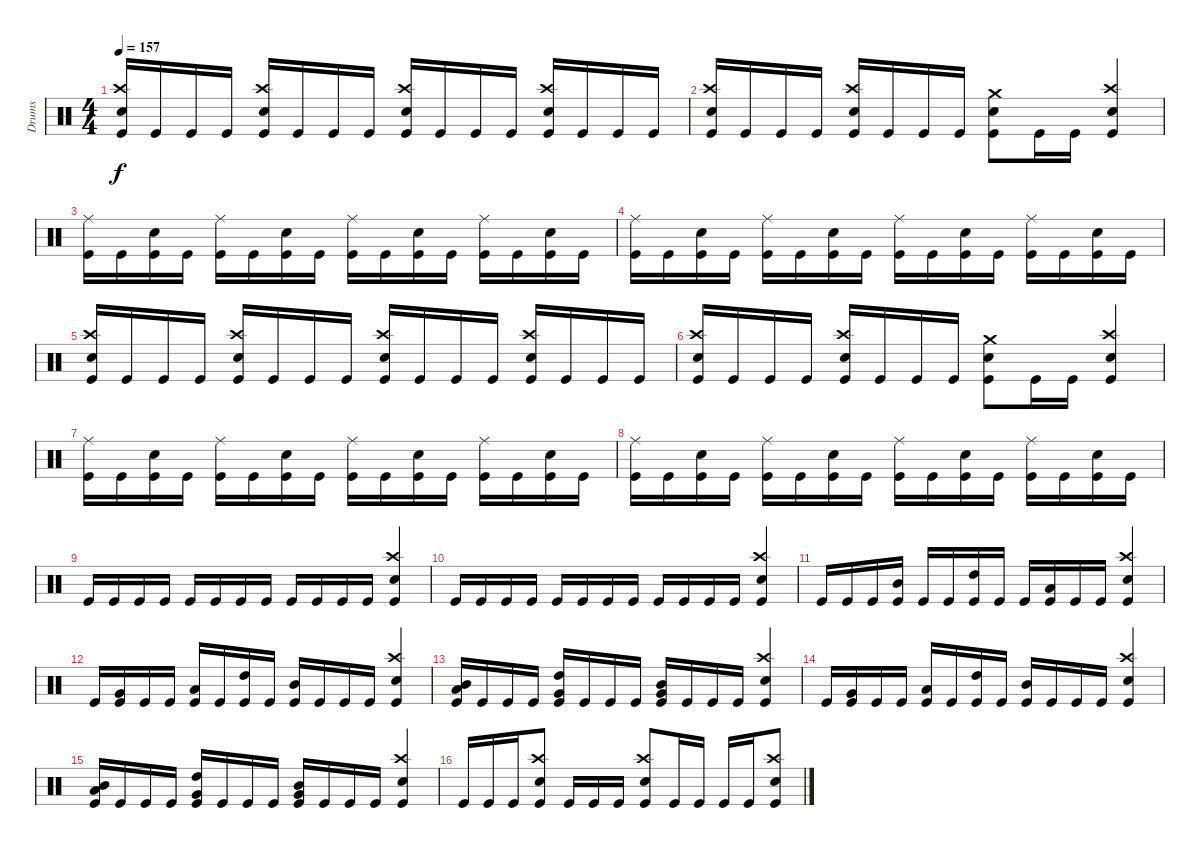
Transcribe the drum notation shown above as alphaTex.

\track ("Drums" "Drums") {instrument percussion}
\staff {score}
\articulation defaults
\ts (4 4)
\tempo 157
\clef neutral
\ks c
("Snare (hit) 2" "Crash high (hit)" "Kick (hit)").16{dy f} "Kick (hit)".16 "Kick (hit)".16 "Kick (hit)".16 ("Snare (hit) 2" "Crash high (hit)" "Kick (hit)").16 "Kick (hit)".16 "Kick (hit)".16 "Kick (hit)".16 ("Snare (hit) 2" "Crash high (hit)" "Kick (hit)").16 "Kick (hit)".16 "Kick (hit)".16 "Kick (hit)".16 ("Snare (hit) 2" "Crash high (hit)" "Kick (hit)").16 "Kick (hit)".16 "Kick (hit)".16 "Kick (hit)".16 |
("Snare (hit) 2" "Crash high (hit)" "Kick (hit)").16 "Kick (hit)".16 "Kick (hit)".16 "Kick (hit)".16 ("Snare (hit) 2" "Crash high (hit)" "Kick (hit)").16 "Kick (hit)".16 "Kick (hit)".16 "Kick (hit)".16 ("Snare (hit) 2" "Crash medium (hit)" "Kick (hit)").8 "Kick (hit)".16 "Kick (hit)".16 ("Snare (hit) 2" "Crash high (hit)" "Kick (hit)").4 |
("Ride (middle)" "Kick (hit)").16 "Kick (hit)".16 ("Snare (hit) 2" "Kick (hit)").16 "Kick (hit)".16 ("Ride (middle)" "Kick (hit)").16 "Kick (hit)".16 ("Snare (hit) 2" "Kick (hit)").16 "Kick (hit)".16 ("Ride (middle)" "Kick (hit)").16 "Kick (hit)".16 ("Snare (hit) 2" "Kick (hit)").16 "Kick (hit)".16 ("Ride (middle)" "Kick (hit)").16 "Kick (hit)".16 ("Snare (hit) 2" "Kick (hit)").16 "Kick (hit)".16 |
("Ride (middle)" "Kick (hit)").16 "Kick (hit)".16 ("Snare (hit) 2" "Kick (hit)").16 "Kick (hit)".16 ("Ride (middle)" "Kick (hit)").16 "Kick (hit)".16 ("Snare (hit) 2" "Kick (hit)").16 "Kick (hit)".16 ("Ride (middle)" "Kick (hit)").16 "Kick (hit)".16 ("Snare (hit) 2" "Kick (hit)").16 "Kick (hit)".16 ("Ride (middle)" "Kick (hit)").16 "Kick (hit)".16 ("Snare (hit) 2" "Kick (hit)").16 "Kick (hit)".16 |
("Snare (hit) 2" "Crash high (hit)" "Kick (hit)").16 "Kick (hit)".16 "Kick (hit)".16 "Kick (hit)".16 ("Snare (hit) 2" "Crash high (hit)" "Kick (hit)").16 "Kick (hit)".16 "Kick (hit)".16 "Kick (hit)".16 ("Snare (hit) 2" "Crash high (hit)" "Kick (hit)").16 "Kick (hit)".16 "Kick (hit)".16 "Kick (hit)".16 ("Snare (hit) 2" "Crash high (hit)" "Kick (hit)").16 "Kick (hit)".16 "Kick (hit)".16 "Kick (hit)".16 |
("Snare (hit) 2" "Crash high (hit)" "Kick (hit)").16 "Kick (hit)".16 "Kick (hit)".16 "Kick (hit)".16 ("Snare (hit) 2" "Crash high (hit)" "Kick (hit)").16 "Kick (hit)".16 "Kick (hit)".16 "Kick (hit)".16 ("Snare (hit) 2" "Crash medium (hit)" "Kick (hit)").8 "Kick (hit)".16 "Kick (hit)".16 ("Snare (hit) 2" "Crash high (hit)" "Kick (hit)").4 |
("Ride (middle)" "Kick (hit)").16 "Kick (hit)".16 ("Snare (hit) 2" "Kick (hit)").16 "Kick (hit)".16 ("Ride (middle)" "Kick (hit)").16 "Kick (hit)".16 ("Snare (hit) 2" "Kick (hit)").16 "Kick (hit)".16 ("Ride (middle)" "Kick (hit)").16 "Kick (hit)".16 ("Snare (hit) 2" "Kick (hit)").16 "Kick (hit)".16 ("Ride (middle)" "Kick (hit)").16 "Kick (hit)".16 ("Snare (hit) 2" "Kick (hit)").16 "Kick (hit)".16 |
("Ride (middle)" "Kick (hit)").16 "Kick (hit)".16 ("Snare (hit) 2" "Kick (hit)").16 "Kick (hit)".16 ("Ride (middle)" "Kick (hit)").16 "Kick (hit)".16 ("Snare (hit) 2" "Kick (hit)").16 "Kick (hit)".16 ("Ride (middle)" "Kick (hit)").16 "Kick (hit)".16 ("Snare (hit) 2" "Kick (hit)").16 "Kick (hit)".16 ("Ride (middle)" "Kick (hit)").16 "Kick (hit)".16 ("Snare (hit) 2" "Kick (hit)").16 "Kick (hit)".16 |
"Kick (hit)".16 "Kick (hit)".16 "Kick (hit)".16 "Kick (hit)".16 "Kick (hit)".16 "Kick (hit)".16 "Kick (hit)".16 "Kick (hit)".16 "Kick (hit)".16 "Kick (hit)".16 "Kick (hit)".16 "Kick (hit)".16 ("Snare (hit) 2" "Crash high (hit)" "Kick (hit)").4 |
"Kick (hit)".16 "Kick (hit)".16 "Kick (hit)".16 "Kick (hit)".16 "Kick (hit)".16 "Kick (hit)".16 "Kick (hit)".16 "Kick (hit)".16 "Kick (hit)".16 "Kick (hit)".16 "Kick (hit)".16 "Kick (hit)".16 ("Snare (hit) 2" "Crash high (hit)" "Kick (hit)").4 |
"Kick (hit)".16 "Kick (hit)".16 "Kick (hit)".16 ("Mid Tom (hit)" "Kick (hit)").16 "Kick (hit)".16 "Kick (hit)".16 ("High Tom (hit)" "Kick (hit)").16 "Kick (hit)".16 "Kick (hit)".16 ("Low Tom (hit)" "Kick (hit)").16 "Kick (hit)".16 "Kick (hit)".16 ("Snare (hit) 2" "Crash high (hit)" "Kick (hit)").4 |
"Kick (hit)".16 ("Very Low Tom (hit)" "Kick (hit)").16 "Kick (hit)".16 "Kick (hit)".16 ("Low Tom (hit)" "Kick (hit)").16 "Kick (hit)".16 ("High Tom (hit)" "Kick (hit)").16 "Kick (hit)".16 ("Mid Tom (hit)" "Kick (hit)").16 "Kick (hit)".16 "Kick (hit)".16 "Kick (hit)".16 ("Snare (hit) 2" "Crash high (hit)" "Kick (hit)").4 |
("Mid Tom (hit)" "Low Tom (hit)" "Kick (hit)").16 "Kick (hit)".16 "Kick (hit)".16 "Kick (hit)".16 ("High Tom (hit)" "Very Low Tom (hit)" "Kick (hit)").16 "Kick (hit)".16 "Kick (hit)".16 "Kick (hit)".16 ("Mid Tom (hit)" "Very Low Tom (hit)" "Kick (hit)").16 "Kick (hit)".16 "Kick (hit)".16 "Kick (hit)".16 ("Snare (hit) 2" "Crash high (hit)" "Kick (hit)").4 |
"Kick (hit)".16 ("Very Low Tom (hit)" "Kick (hit)").16 "Kick (hit)".16 "Kick (hit)".16 ("Low Tom (hit)" "Kick (hit)").16 "Kick (hit)".16 ("High Tom (hit)" "Kick (hit)").16 "Kick (hit)".16 ("Mid Tom (hit)" "Kick (hit)").16 "Kick (hit)".16 "Kick (hit)".16 "Kick (hit)".16 ("Snare (hit) 2" "Crash high (hit)" "Kick (hit)").4 |
("Mid Tom (hit)" "Low Tom (hit)" "Kick (hit)").16 "Kick (hit)".16 "Kick (hit)".16 "Kick (hit)".16 ("High Tom (hit)" "Very Low Tom (hit)" "Kick (hit)").16 "Kick (hit)".16 "Kick (hit)".16 "Kick (hit)".16 ("Mid Tom (hit)" "Very Low Tom (hit)" "Kick (hit)").16 "Kick (hit)".16 "Kick (hit)".16 "Kick (hit)".16 ("Snare (hit) 2" "Crash high (hit)" "Kick (hit)").4 |
"Kick (hit)".16 "Kick (hit)".16 "Kick (hit)".16 ("Snare (hit) 2" "Crash high (hit)" "Kick (hit)").8 "Kick (hit)".16 "Kick (hit)".16 "Kick (hit)".16 ("Snare (hit) 2" "Crash high (hit)" "Kick (hit)").8 "Kick (hit)".16 "Kick (hit)".16 "Kick (hit)".16 "Kick (hit)".16 ("Snare (hit) 2" "Crash high (hit)" "Kick (hit)").8
